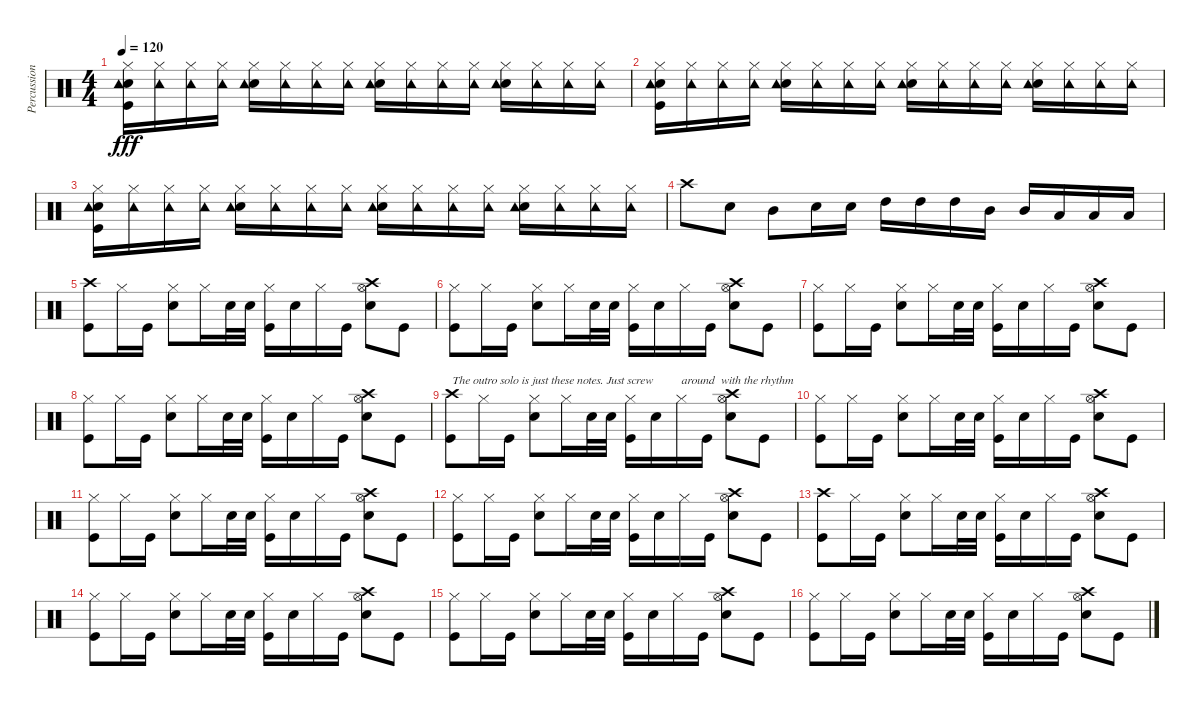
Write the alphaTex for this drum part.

\track ("Percussion" "Percussion") {instrument percussion}
\staff {score}
\articulation defaults
\ts (4 4)
\tempo 120
\clef neutral
\ks c
("Hi-Hat (closed)" "Kick (hit)" "Hand Clap (hit)" "Tambourine (hit)").16{dy fff} ("Hi-Hat (closed)" "Tambourine (hit)").16 ("Hi-Hat (closed)" "Tambourine (hit)").16 ("Hi-Hat (closed)" "Tambourine (hit)").16 ("Hand Clap (hit)" "Hi-Hat (closed)" "Tambourine (hit)").16 ("Hi-Hat (closed)" "Tambourine (hit)").16 ("Hi-Hat (closed)" "Tambourine (hit)").16 ("Hi-Hat (closed)" "Tambourine (hit)").16 ("Hand Clap (hit)" "Hi-Hat (closed)" "Tambourine (hit)").16 ("Hi-Hat (closed)" "Tambourine (hit)").16 ("Hi-Hat (closed)" "Tambourine (hit)").16 ("Hi-Hat (closed)" "Tambourine (hit)").16 ("Hand Clap (hit)" "Hi-Hat (closed)" "Tambourine (hit)").16 ("Hi-Hat (closed)" "Tambourine (hit)").16 ("Hi-Hat (closed)" "Tambourine (hit)").16 ("Hi-Hat (closed)" "Tambourine (hit)").16 |
("Hi-Hat (closed)" "Kick (hit)" "Hand Clap (hit)" "Tambourine (hit)").16 ("Hi-Hat (closed)" "Tambourine (hit)").16 ("Hi-Hat (closed)" "Tambourine (hit)").16 ("Hi-Hat (closed)" "Tambourine (hit)").16 ("Hand Clap (hit)" "Hi-Hat (closed)" "Tambourine (hit)").16 ("Hi-Hat (closed)" "Tambourine (hit)").16 ("Hi-Hat (closed)" "Tambourine (hit)").16 ("Hi-Hat (closed)" "Tambourine (hit)").16 ("Hand Clap (hit)" "Hi-Hat (closed)" "Tambourine (hit)").16 ("Hi-Hat (closed)" "Tambourine (hit)").16 ("Hi-Hat (closed)" "Tambourine (hit)").16 ("Hi-Hat (closed)" "Tambourine (hit)").16 ("Hand Clap (hit)" "Hi-Hat (closed)" "Tambourine (hit)").16 ("Hi-Hat (closed)" "Tambourine (hit)").16 ("Hi-Hat (closed)" "Tambourine (hit)").16 ("Hi-Hat (closed)" "Tambourine (hit)").16 |
("Hi-Hat (closed)" "Kick (hit)" "Hand Clap (hit)" "Tambourine (hit)").16 ("Hi-Hat (closed)" "Tambourine (hit)").16 ("Hi-Hat (closed)" "Tambourine (hit)").16 ("Hi-Hat (closed)" "Tambourine (hit)").16 ("Hand Clap (hit)" "Hi-Hat (closed)" "Tambourine (hit)").16 ("Hi-Hat (closed)" "Tambourine (hit)").16 ("Hi-Hat (closed)" "Tambourine (hit)").16 ("Hi-Hat (closed)" "Tambourine (hit)").16 ("Hand Clap (hit)" "Hi-Hat (closed)" "Tambourine (hit)").16 ("Hi-Hat (closed)" "Tambourine (hit)").16 ("Hi-Hat (closed)" "Tambourine (hit)").16 ("Hi-Hat (closed)" "Tambourine (hit)").16 ("Hand Clap (hit)" "Hi-Hat (closed)" "Tambourine (hit)").16 ("Hi-Hat (closed)" "Tambourine (hit)").16 ("Hi-Hat (closed)" "Tambourine (hit)").16 ("Hi-Hat (closed)" "Tambourine (hit)").16 |
"Crash high (hit)".8 "Snare (hit) 2".8 "Mid Tom (hit)".8 "Snare (hit) 2".16 "Snare (hit) 2".16 "High Tom (hit)".16 "High Tom (hit)".16 "High Tom (hit)".16 "Mid Tom (hit)".16 "Mid Tom (hit)".16 "Low Tom (hit)".16 "Low Tom (hit)".16 "Low Tom (hit)".16 |
("Crash high (hit)" "Kick (hit)").8 "Hi-Hat (closed)".16 "Kick (hit)".16 ("Snare (hit) 2" "Hi-Hat (closed)").8 "Hi-Hat (closed)".16 "Snare (hit) 2".32 "Snare (hit) 2".32 ("Hi-Hat (closed)" "Kick (hit)").16 "Snare (hit) 2".16 "Hi-Hat (closed)".16 "Kick (hit)".16 ("Snare (hit) 2" "Hi-Hat (open)" "Crash high (hit)").8 "Kick (hit)".8 |
("Hi-Hat (closed)" "Kick (hit)").8 "Hi-Hat (closed)".16 "Kick (hit)".16 ("Snare (hit) 2" "Hi-Hat (closed)").8 "Hi-Hat (closed)".16 "Snare (hit) 2".32 "Snare (hit) 2".32 ("Hi-Hat (closed)" "Kick (hit)").16 "Snare (hit) 2".16 "Hi-Hat (closed)".16 "Kick (hit)".16 ("Snare (hit) 2" "Hi-Hat (open)" "Crash high (hit)").8 "Kick (hit)".8 |
("Hi-Hat (closed)" "Kick (hit)").8 "Hi-Hat (closed)".16 "Kick (hit)".16 ("Snare (hit) 2" "Hi-Hat (closed)").8 "Hi-Hat (closed)".16 "Snare (hit) 2".32 "Snare (hit) 2".32 ("Hi-Hat (closed)" "Kick (hit)").16 "Snare (hit) 2".16 "Hi-Hat (closed)".16 "Kick (hit)".16 ("Snare (hit) 2" "Hi-Hat (open)" "Crash high (hit)").8 "Kick (hit)".8 |
("Hi-Hat (closed)" "Kick (hit)").8 "Hi-Hat (closed)".16 "Kick (hit)".16 ("Snare (hit) 2" "Hi-Hat (closed)").8 "Hi-Hat (closed)".16 "Snare (hit) 2".32 "Snare (hit) 2".32 ("Hi-Hat (closed)" "Kick (hit)").16 "Snare (hit) 2".16 "Hi-Hat (closed)".16 "Kick (hit)".16 ("Snare (hit) 2" "Hi-Hat (open)" "Crash high (hit)").8 "Kick (hit)".8 |
("Crash high (hit)" "Kick (hit)").8{txt "The outro solo is just these notes. Just screw"} "Hi-Hat (closed)".16 "Kick (hit)".16 ("Snare (hit) 2" "Hi-Hat (closed)").8 "Hi-Hat (closed)".16 "Snare (hit) 2".32 "Snare (hit) 2".32 ("Hi-Hat (closed)" "Kick (hit)").16 "Snare (hit) 2".16 "Hi-Hat (closed)".16{txt "around  with the rhythm"} "Kick (hit)".16 ("Snare (hit) 2" "Hi-Hat (open)" "Crash high (hit)").8 "Kick (hit)".8 |
("Hi-Hat (closed)" "Kick (hit)").8 "Hi-Hat (closed)".16 "Kick (hit)".16 ("Snare (hit) 2" "Hi-Hat (closed)").8 "Hi-Hat (closed)".16 "Snare (hit) 2".32 "Snare (hit) 2".32 ("Hi-Hat (closed)" "Kick (hit)").16 "Snare (hit) 2".16 "Hi-Hat (closed)".16 "Kick (hit)".16 ("Snare (hit) 2" "Hi-Hat (open)" "Crash high (hit)").8 "Kick (hit)".8 |
("Hi-Hat (closed)" "Kick (hit)").8 "Hi-Hat (closed)".16 "Kick (hit)".16 ("Snare (hit) 2" "Hi-Hat (closed)").8 "Hi-Hat (closed)".16 "Snare (hit) 2".32 "Snare (hit) 2".32 ("Hi-Hat (closed)" "Kick (hit)").16 "Snare (hit) 2".16 "Hi-Hat (closed)".16 "Kick (hit)".16 ("Snare (hit) 2" "Hi-Hat (open)" "Crash high (hit)").8 "Kick (hit)".8 |
("Hi-Hat (closed)" "Kick (hit)").8 "Hi-Hat (closed)".16 "Kick (hit)".16 ("Snare (hit) 2" "Hi-Hat (closed)").8 "Hi-Hat (closed)".16 "Snare (hit) 2".32 "Snare (hit) 2".32 ("Hi-Hat (closed)" "Kick (hit)").16 "Snare (hit) 2".16 "Hi-Hat (closed)".16 "Kick (hit)".16 ("Snare (hit) 2" "Hi-Hat (open)" "Crash high (hit)").8 "Kick (hit)".8 |
("Crash high (hit)" "Kick (hit)").8{volume 0} "Hi-Hat (closed)".16 "Kick (hit)".16 ("Snare (hit) 2" "Hi-Hat (closed)").8 "Hi-Hat (closed)".16 "Snare (hit) 2".32 "Snare (hit) 2".32 ("Hi-Hat (closed)" "Kick (hit)").16 "Snare (hit) 2".16 "Hi-Hat (closed)".16 "Kick (hit)".16 ("Snare (hit) 2" "Hi-Hat (open)" "Crash high (hit)").8 "Kick (hit)".8 |
("Hi-Hat (closed)" "Kick (hit)").8 "Hi-Hat (closed)".16 "Kick (hit)".16 ("Snare (hit) 2" "Hi-Hat (closed)").8 "Hi-Hat (closed)".16 "Snare (hit) 2".32 "Snare (hit) 2".32 ("Hi-Hat (closed)" "Kick (hit)").16 "Snare (hit) 2".16 "Hi-Hat (closed)".16 "Kick (hit)".16 ("Snare (hit) 2" "Hi-Hat (open)" "Crash high (hit)").8 "Kick (hit)".8 |
("Hi-Hat (closed)" "Kick (hit)").8 "Hi-Hat (closed)".16 "Kick (hit)".16 ("Snare (hit) 2" "Hi-Hat (closed)").8 "Hi-Hat (closed)".16 "Snare (hit) 2".32 "Snare (hit) 2".32 ("Hi-Hat (closed)" "Kick (hit)").16 "Snare (hit) 2".16 "Hi-Hat (closed)".16 "Kick (hit)".16 ("Snare (hit) 2" "Hi-Hat (open)" "Crash high (hit)").8 "Kick (hit)".8 |
("Hi-Hat (closed)" "Kick (hit)").8 "Hi-Hat (closed)".16 "Kick (hit)".16 ("Snare (hit) 2" "Hi-Hat (closed)").8 "Hi-Hat (closed)".16 "Snare (hit) 2".32 "Snare (hit) 2".32 ("Hi-Hat (closed)" "Kick (hit)").16 "Snare (hit) 2".16 "Hi-Hat (closed)".16 "Kick (hit)".16 ("Snare (hit) 2" "Hi-Hat (open)" "Crash high (hit)").8 "Kick (hit)".8
